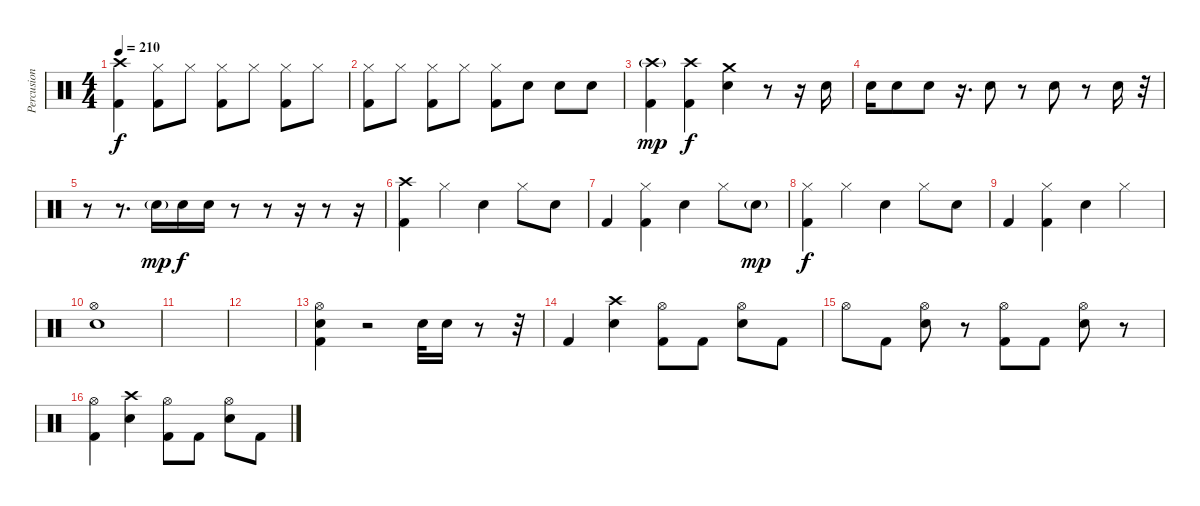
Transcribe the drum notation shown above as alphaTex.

\track ("Percusion" "Percusion") {instrument percussion}
\staff {score}
\articulation defaults
\ts (4 4)
\tempo 210
\clef neutral
\ks c
("Crash high (hit)" "Kick (hit) 2").4{dy f} ("Hi-Hat (closed)" "Kick (hit) 2").8 "Hi-Hat (closed)".8 ("Hi-Hat (closed)" "Kick (hit) 2").8 "Hi-Hat (closed)".8 ("Hi-Hat (closed)" "Kick (hit) 2").8 "Hi-Hat (closed)".8 |
("Hi-Hat (closed)" "Kick (hit) 2").8 "Hi-Hat (closed)".8 ("Hi-Hat (closed)" "Kick (hit) 2").8 "Hi-Hat (closed)".8 ("Hi-Hat (closed)" "Kick (hit) 2").8 "Snare (hit) 2".8 "Snare (hit) 2".8 "Snare (hit) 2".8 |
("Crash high (hit)"{g} "Kick (hit) 2").4{dy mp} ("Crash high (hit)" "Kick (hit) 2").4{dy f} ("Crash medium (hit)" "Snare (hit) 2").4 r.8 r.16 "Snare (hit) 2".16 |
"Snare (hit) 2".16 "Snare (hit) 2".8 "Snare (hit) 2".8 r.16{d} "Snare (hit) 2".8 r.8 "Snare (hit) 2".8 r.8 "Snare (hit) 2".16 r.32 |
r.8 r.8{d} "Snare (hit) 2"{g}.16{dy mp} "Snare (hit) 2".16{dy f} "Snare (hit) 2".16 r.8 r.8 r.16 r.8 r.16 |
("Crash high (hit)" "Kick (hit) 2").4 "Hi-Hat (closed)".4 "Snare (hit) 2".4 "Hi-Hat (closed)".8 "Snare (hit) 2".8 |
"Kick (hit) 2".4 ("Hi-Hat (closed)" "Kick (hit) 2").4 "Snare (hit) 2".4 "Hi-Hat (closed)".8 "Snare (hit) 2"{g}.8{dy mp} |
("Hi-Hat (closed)" "Kick (hit) 2").4{dy f} "Hi-Hat (closed)".4 "Snare (hit) 2".4 "Hi-Hat (closed)".8 "Snare (hit) 2".8 |
"Kick (hit) 2".4 ("Hi-Hat (closed)" "Kick (hit) 2").4 "Snare (hit) 2".4 "Hi-Hat (closed)".4 |
("Hi-Hat (open)" "Snare (hit) 2").1 |
|
|
("Hi-Hat (open)" "Snare (hit) 2" "Kick (hit) 2").4 r.2 "Snare (hit) 2".32 "Snare (hit) 2".16 r.8 r.32 |
"Kick (hit) 2".4 ("Crash high (hit)" "Snare (hit) 2").4 ("Hi-Hat (open)" "Kick (hit) 2").8 "Kick (hit) 2".8 ("Hi-Hat (open)" "Snare (hit) 2").8 "Kick (hit) 2".8 |
"Hi-Hat (open)".8 "Kick (hit) 2".8 ("Hi-Hat (open)" "Snare (hit) 2").8 r.8 ("Hi-Hat (open)" "Kick (hit) 2").8 "Kick (hit) 2".8 ("Hi-Hat (open)" "Snare (hit) 2").8 r.8 |
("Hi-Hat (open)" "Kick (hit) 2").4 ("Crash high (hit)" "Snare (hit) 2").4 ("Hi-Hat (open)" "Kick (hit) 2").8 "Kick (hit) 2".8 ("Hi-Hat (open)" "Snare (hit) 2").8 "Kick (hit) 2".8
